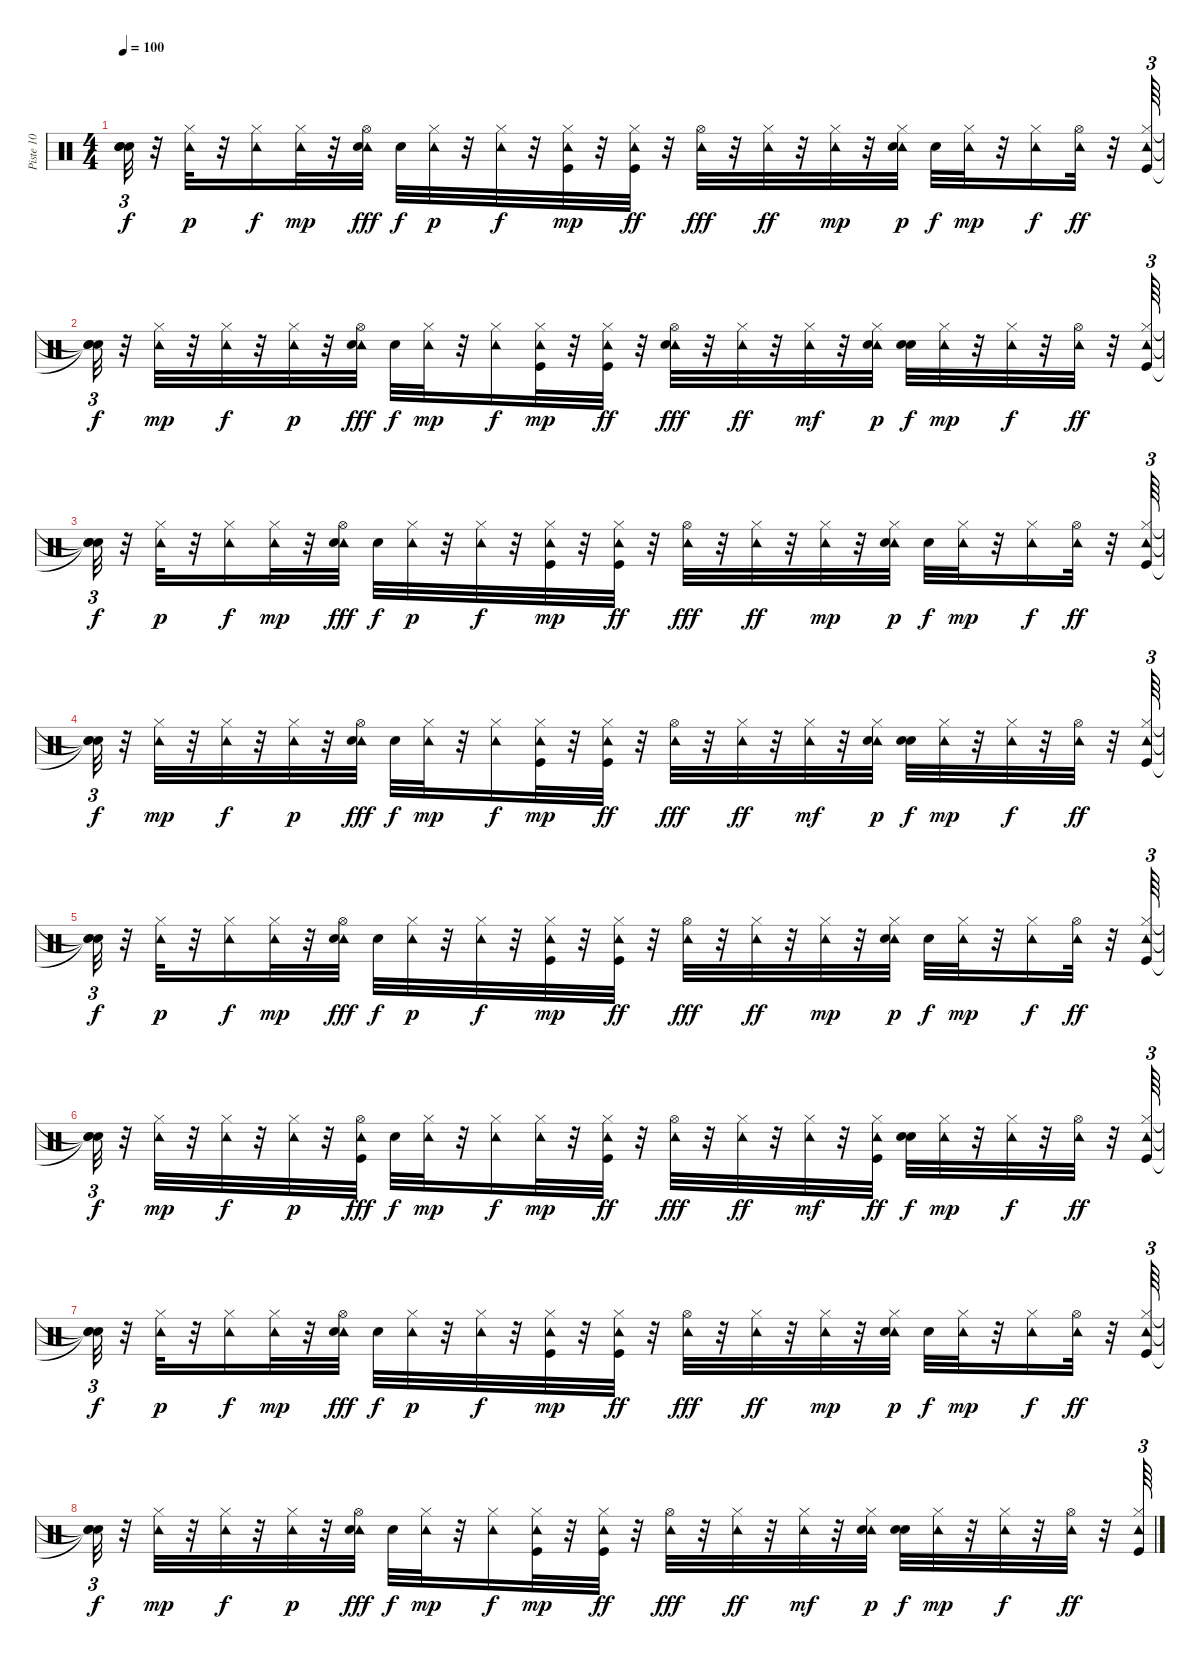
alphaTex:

\track ("Piste 10" "Piste 10") {instrument percussion}
\staff {score}
\articulation defaults
\ts (4 4)
\tempo 100
\clef neutral
\ks c
("Snare (hit)"{t} "Snare (hit)"{t} "Snare (hit)"{t}).32{tu (3 2) dy f} r.32 ("Tambourine (hit)" "Hi-Hat (closed)").32{dy p} r.32 ("Tambourine (hit)" "Hi-Hat (closed)").16{dy f} ("Tambourine (hit)" "Hi-Hat (closed)").32{dy mp} r.32 ("Tambourine (hit)" "Hi-Hat (open)" "Electric Snare (hit)").32{dy fff} "Hand Clap (hit)".32{dy f} ("Tambourine (hit)" "Hi-Hat (closed)").32{dy p} r.32 ("Tambourine (hit)" "Hi-Hat (closed)").32{dy f} r.32 ("Tambourine (hit)" "Hi-Hat (closed)" "Kick (hit)").32{dy mp} r.32 ("Tambourine (hit)" "Hi-Hat (closed)" "Kick (hit)").32{dy ff} r.32 ("Tambourine (hit)" "Hi-Hat (open)").32{dy fff} r.32 ("Tambourine (hit)" "Hi-Hat (closed)").32{dy ff} r.32 ("Tambourine (hit)" "Hi-Hat (closed)").32{dy mp} r.32 ("Tambourine (hit)" "Hi-Hat (closed)" "Electric Snare (hit)").32{dy p} "Hand Clap (hit)".32{dy f} ("Tambourine (hit)" "Hi-Hat (closed)").32{dy mp} r.32 ("Tambourine (hit)" "Hi-Hat (closed)").16{dy f} ("Tambourine (hit)" "Hi-Hat (open)").32{dy ff} r.32 ("Tambourine (hit)" "Kick (hit)" "Hi-Hat (closed)").64{tu (3 2)} |
("Snare (hit)"{t} "Snare (hit)"{t} "Snare (hit)"{t}).32{tu (3 2) dy f} r.32 ("Tambourine (hit)" "Hi-Hat (closed)").32{dy mp} r.32 ("Tambourine (hit)" "Hi-Hat (closed)").32{dy f} r.32 ("Tambourine (hit)" "Hi-Hat (closed)").32{dy p} r.32 ("Tambourine (hit)" "Hi-Hat (open)" "Electric Snare (hit)").32{dy fff} "Hand Clap (hit)".32{dy f} ("Tambourine (hit)" "Hi-Hat (closed)").32{dy mp} r.32 ("Tambourine (hit)" "Hi-Hat (closed)").16{dy f} ("Tambourine (hit)" "Hi-Hat (closed)" "Kick (hit)").32{dy mp} r.32 ("Tambourine (hit)" "Kick (hit)" "Hi-Hat (closed)").32{dy ff} r.32 ("Tambourine (hit)" "Hi-Hat (open)" "Electric Snare (hit)").32{dy fff} r.32 ("Tambourine (hit)" "Hi-Hat (closed)").32{dy ff} r.32 ("Tambourine (hit)" "Hi-Hat (closed)").32{dy mf} r.32 ("Tambourine (hit)" "Hi-Hat (closed)" "Electric Snare (hit)").32{dy p} ("Hand Clap (hit)" "Hand Clap (hit)").32{dy f} ("Tambourine (hit)" "Hi-Hat (closed)").32{dy mp} r.32 ("Tambourine (hit)" "Hi-Hat (closed)").32{dy f} r.32 ("Tambourine (hit)" "Hi-Hat (open)").32{dy ff} r.32 ("Tambourine (hit)" "Kick (hit)" "Hi-Hat (closed)").64{tu (3 2)} |
("Snare (hit)"{t} "Snare (hit)"{t} "Snare (hit)"{t}).32{tu (3 2) dy f} r.32 ("Tambourine (hit)" "Hi-Hat (closed)").32{dy p} r.32 ("Tambourine (hit)" "Hi-Hat (closed)").16{dy f} ("Tambourine (hit)" "Hi-Hat (closed)").32{dy mp} r.32 ("Tambourine (hit)" "Hi-Hat (open)" "Electric Snare (hit)").32{dy fff} "Hand Clap (hit)".32{dy f} ("Tambourine (hit)" "Hi-Hat (closed)").32{dy p} r.32 ("Tambourine (hit)" "Hi-Hat (closed)").32{dy f} r.32 ("Tambourine (hit)" "Hi-Hat (closed)" "Kick (hit)").32{dy mp} r.32 ("Tambourine (hit)" "Hi-Hat (closed)" "Kick (hit)").32{dy ff} r.32 ("Tambourine (hit)" "Hi-Hat (open)").32{dy fff} r.32 ("Tambourine (hit)" "Hi-Hat (closed)").32{dy ff} r.32 ("Tambourine (hit)" "Hi-Hat (closed)").32{dy mp} r.32 ("Tambourine (hit)" "Hi-Hat (closed)" "Electric Snare (hit)").32{dy p} "Hand Clap (hit)".32{dy f} ("Tambourine (hit)" "Hi-Hat (closed)").32{dy mp} r.32 ("Tambourine (hit)" "Hi-Hat (closed)").16{dy f} ("Tambourine (hit)" "Hi-Hat (open)").32{dy ff} r.32 ("Tambourine (hit)" "Kick (hit)" "Hi-Hat (closed)").64{tu (3 2)} |
("Snare (hit)"{t} "Snare (hit)"{t} "Snare (hit)"{t}).32{tu (3 2) dy f} r.32 ("Tambourine (hit)" "Hi-Hat (closed)").32{dy mp} r.32 ("Tambourine (hit)" "Hi-Hat (closed)").32{dy f} r.32 ("Tambourine (hit)" "Hi-Hat (closed)").32{dy p} r.32 ("Tambourine (hit)" "Hi-Hat (open)" "Electric Snare (hit)").32{dy fff} "Hand Clap (hit)".32{dy f} ("Tambourine (hit)" "Hi-Hat (closed)").32{dy mp} r.32 ("Tambourine (hit)" "Hi-Hat (closed)").16{dy f} ("Tambourine (hit)" "Hi-Hat (closed)" "Kick (hit)").32{dy mp} r.32 ("Tambourine (hit)" "Kick (hit)" "Hi-Hat (closed)").32{dy ff} r.32 ("Tambourine (hit)" "Hi-Hat (open)").32{dy fff} r.32 ("Tambourine (hit)" "Hi-Hat (closed)").32{dy ff} r.32 ("Tambourine (hit)" "Hi-Hat (closed)").32{dy mf} r.32 ("Tambourine (hit)" "Hi-Hat (closed)" "Electric Snare (hit)").32{dy p} ("Hand Clap (hit)" "Hand Clap (hit)").32{dy f} ("Tambourine (hit)" "Hi-Hat (closed)").32{dy mp} r.32 ("Tambourine (hit)" "Hi-Hat (closed)").32{dy f} r.32 ("Tambourine (hit)" "Hi-Hat (open)").32{dy ff} r.32 ("Tambourine (hit)" "Kick (hit)" "Hi-Hat (closed)").64{tu (3 2)} |
("Snare (hit)"{t} "Snare (hit)"{t} "Snare (hit)"{t}).32{tu (3 2) dy f} r.32 ("Tambourine (hit)" "Hi-Hat (closed)").32{dy p} r.32 ("Tambourine (hit)" "Hi-Hat (closed)").16{dy f} ("Tambourine (hit)" "Hi-Hat (closed)").32{dy mp} r.32 ("Tambourine (hit)" "Hi-Hat (open)" "Electric Snare (hit)").32{dy fff} "Hand Clap (hit)".32{dy f} ("Tambourine (hit)" "Hi-Hat (closed)").32{dy p} r.32 ("Tambourine (hit)" "Hi-Hat (closed)").32{dy f} r.32 ("Tambourine (hit)" "Hi-Hat (closed)" "Kick (hit)").32{dy mp} r.32 ("Tambourine (hit)" "Hi-Hat (closed)" "Kick (hit)").32{dy ff} r.32 ("Tambourine (hit)" "Hi-Hat (open)").32{dy fff} r.32 ("Tambourine (hit)" "Hi-Hat (closed)").32{dy ff} r.32 ("Tambourine (hit)" "Hi-Hat (closed)").32{dy mp} r.32 ("Tambourine (hit)" "Hi-Hat (closed)" "Electric Snare (hit)").32{dy p} "Hand Clap (hit)".32{dy f} ("Tambourine (hit)" "Hi-Hat (closed)").32{dy mp} r.32 ("Tambourine (hit)" "Hi-Hat (closed)").16{dy f} ("Tambourine (hit)" "Hi-Hat (open)").32{dy ff} r.32 ("Tambourine (hit)" "Kick (hit)" "Hi-Hat (closed)").64{tu (3 2)} |
("Snare (hit)"{t} "Snare (hit)"{t} "Snare (hit)"{t}).32{tu (3 2) dy f} r.32 ("Tambourine (hit)" "Hi-Hat (closed)").32{dy mp} r.32 ("Tambourine (hit)" "Hi-Hat (closed)").32{dy f} r.32 ("Tambourine (hit)" "Hi-Hat (closed)").32{dy p} r.32 ("Tambourine (hit)" "Kick (hit)" "Hi-Hat (open)").32{dy fff} "Hand Clap (hit)".32{dy f} ("Tambourine (hit)" "Hi-Hat (closed)").32{dy mp} r.32 ("Tambourine (hit)" "Hi-Hat (closed)").16{dy f} ("Tambourine (hit)" "Hi-Hat (closed)").32{dy mp} r.32 ("Tambourine (hit)" "Kick (hit)" "Hi-Hat (closed)").32{dy ff} r.32 ("Tambourine (hit)" "Hi-Hat (open)").32{dy fff} r.32 ("Tambourine (hit)" "Hi-Hat (closed)").32{dy ff} r.32 ("Tambourine (hit)" "Hi-Hat (closed)").32{dy mf} r.32 ("Tambourine (hit)" "Kick (hit)" "Hi-Hat (closed)").32{dy ff} ("Hand Clap (hit)" "Hand Clap (hit)").32{dy f} ("Tambourine (hit)" "Hi-Hat (closed)").32{dy mp} r.32 ("Tambourine (hit)" "Hi-Hat (closed)").32{dy f} r.32 ("Tambourine (hit)" "Hi-Hat (open)").32{dy ff} r.32 ("Tambourine (hit)" "Kick (hit)" "Hi-Hat (closed)").64{tu (3 2)} |
("Snare (hit)"{t} "Snare (hit)"{t} "Snare (hit)"{t}).32{tu (3 2) dy f} r.32 ("Tambourine (hit)" "Hi-Hat (closed)").32{dy p} r.32 ("Tambourine (hit)" "Hi-Hat (closed)").16{dy f} ("Tambourine (hit)" "Hi-Hat (closed)").32{dy mp} r.32 ("Tambourine (hit)" "Hi-Hat (open)" "Electric Snare (hit)").32{dy fff} "Hand Clap (hit)".32{dy f} ("Tambourine (hit)" "Hi-Hat (closed)").32{dy p} r.32 ("Tambourine (hit)" "Hi-Hat (closed)").32{dy f} r.32 ("Tambourine (hit)" "Hi-Hat (closed)" "Kick (hit)").32{dy mp} r.32 ("Tambourine (hit)" "Hi-Hat (closed)" "Kick (hit)").32{dy ff} r.32 ("Tambourine (hit)" "Hi-Hat (open)").32{dy fff} r.32 ("Tambourine (hit)" "Hi-Hat (closed)").32{dy ff} r.32 ("Tambourine (hit)" "Hi-Hat (closed)").32{dy mp} r.32 ("Tambourine (hit)" "Hi-Hat (closed)" "Electric Snare (hit)").32{dy p} "Hand Clap (hit)".32{dy f} ("Tambourine (hit)" "Hi-Hat (closed)").32{dy mp} r.32 ("Tambourine (hit)" "Hi-Hat (closed)").16{dy f} ("Tambourine (hit)" "Hi-Hat (open)").32{dy ff} r.32 ("Tambourine (hit)" "Kick (hit)" "Hi-Hat (closed)").64{tu (3 2)} |
("Snare (hit)"{t} "Snare (hit)"{t} "Snare (hit)"{t}).32{tu (3 2) dy f} r.32 ("Tambourine (hit)" "Hi-Hat (closed)").32{dy mp} r.32 ("Tambourine (hit)" "Hi-Hat (closed)").32{dy f} r.32 ("Tambourine (hit)" "Hi-Hat (closed)").32{dy p} r.32 ("Tambourine (hit)" "Hi-Hat (open)" "Electric Snare (hit)").32{dy fff} "Hand Clap (hit)".32{dy f} ("Tambourine (hit)" "Hi-Hat (closed)").32{dy mp} r.32 ("Tambourine (hit)" "Hi-Hat (closed)").16{dy f} ("Tambourine (hit)" "Hi-Hat (closed)" "Kick (hit)").32{dy mp} r.32 ("Tambourine (hit)" "Kick (hit)" "Hi-Hat (closed)").32{dy ff} r.32 ("Tambourine (hit)" "Hi-Hat (open)").32{dy fff} r.32 ("Tambourine (hit)" "Hi-Hat (closed)").32{dy ff} r.32 ("Tambourine (hit)" "Hi-Hat (closed)").32{dy mf} r.32 ("Tambourine (hit)" "Hi-Hat (closed)" "Electric Snare (hit)").32{dy p} ("Hand Clap (hit)" "Hand Clap (hit)").32{dy f} ("Tambourine (hit)" "Hi-Hat (closed)").32{dy mp} r.32 ("Tambourine (hit)" "Hi-Hat (closed)").32{dy f} r.32 ("Tambourine (hit)" "Hi-Hat (open)").32{dy ff} r.32 ("Tambourine (hit)" "Kick (hit)" "Hi-Hat (closed)").64{tu (3 2)}
